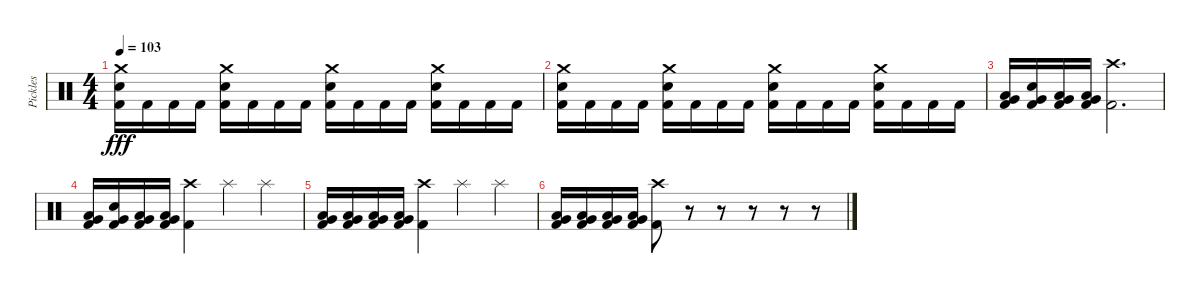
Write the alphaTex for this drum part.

\track ("Pickles" "Pickles") {instrument percussion}
\staff {score}
\articulation defaults
\ts (4 4)
\tempo 103
\clef neutral
\ks c
("Crash medium (hit)" "Electric Snare (hit)" "Kick (hit) 2").16{dy fff} "Kick (hit) 2".16 "Kick (hit) 2".16 "Kick (hit) 2".16 ("Crash medium (hit)" "Electric Snare (hit)" "Kick (hit) 2").16 "Kick (hit) 2".16 "Kick (hit) 2".16 "Kick (hit) 2".16 ("Crash medium (hit)" "Electric Snare (hit)" "Kick (hit) 2").16 "Kick (hit) 2".16 "Kick (hit) 2".16 "Kick (hit) 2".16 ("Crash medium (hit)" "Electric Snare (hit)" "Kick (hit) 2").16 "Kick (hit) 2".16 "Kick (hit) 2".16 "Kick (hit) 2".16 |
("Crash medium (hit)" "Electric Snare (hit)" "Kick (hit) 2").16 "Kick (hit) 2".16 "Kick (hit) 2".16 "Kick (hit) 2".16 ("Crash medium (hit)" "Electric Snare (hit)" "Kick (hit) 2").16 "Kick (hit) 2".16 "Kick (hit) 2".16 "Kick (hit) 2".16 ("Crash medium (hit)" "Electric Snare (hit)" "Kick (hit) 2").16 "Kick (hit) 2".16 "Kick (hit) 2".16 "Kick (hit) 2".16 ("Crash medium (hit)" "Electric Snare (hit)" "Kick (hit) 2").16 "Kick (hit) 2".16 "Kick (hit) 2".16 "Kick (hit) 2".16 |
("Very Low Tom (hit)" "Low Floor Tom (hit)" "Kick (hit) 2").16 ("Very Low Tom (hit)" "Snare (hit)" "Kick (hit) 2").16 ("Very Low Tom (hit)" "Low Floor Tom (hit)" "Kick (hit) 2").16 ("Very Low Tom (hit)" "Low Floor Tom (hit)" "Kick (hit) 2").16 ("Crash high (hit)" "Kick (hit) 2").2{d} |
("Very Low Tom (hit)" "Low Floor Tom (hit)" "Kick (hit) 2").16 ("Very Low Tom (hit)" "Snare (hit)" "Kick (hit) 2").16 ("Very Low Tom (hit)" "Low Floor Tom (hit)" "Kick (hit) 2").16 ("Very Low Tom (hit)" "Low Floor Tom (hit)" "Kick (hit) 2").16 ("Crash high (hit)" "Kick (hit) 2").4 "Splash (hit)".4 "Splash (hit)".4 |
("Very Low Tom (hit)" "Low Floor Tom (hit)" "Kick (hit) 2").16 ("Very Low Tom (hit)" "Low Floor Tom (hit)" "Kick (hit) 2").16 ("Very Low Tom (hit)" "Low Floor Tom (hit)" "Kick (hit) 2").16 ("Very Low Tom (hit)" "Low Floor Tom (hit)" "Kick (hit) 2").16 ("Crash high (hit)" "Kick (hit) 2").4 "Splash (hit)".4 "Splash (hit)".4 |
("Very Low Tom (hit)" "Low Floor Tom (hit)" "Kick (hit) 2").16 ("Very Low Tom (hit)" "Low Floor Tom (hit)" "Kick (hit) 2").16 ("Very Low Tom (hit)" "Low Floor Tom (hit)" "Kick (hit) 2").16 ("Very Low Tom (hit)" "Low Floor Tom (hit)" "Kick (hit) 2").16 ("Crash high (hit)" "Kick (hit) 2").8 r.8{volume 0} r.8 r.8 r.8 r.8
